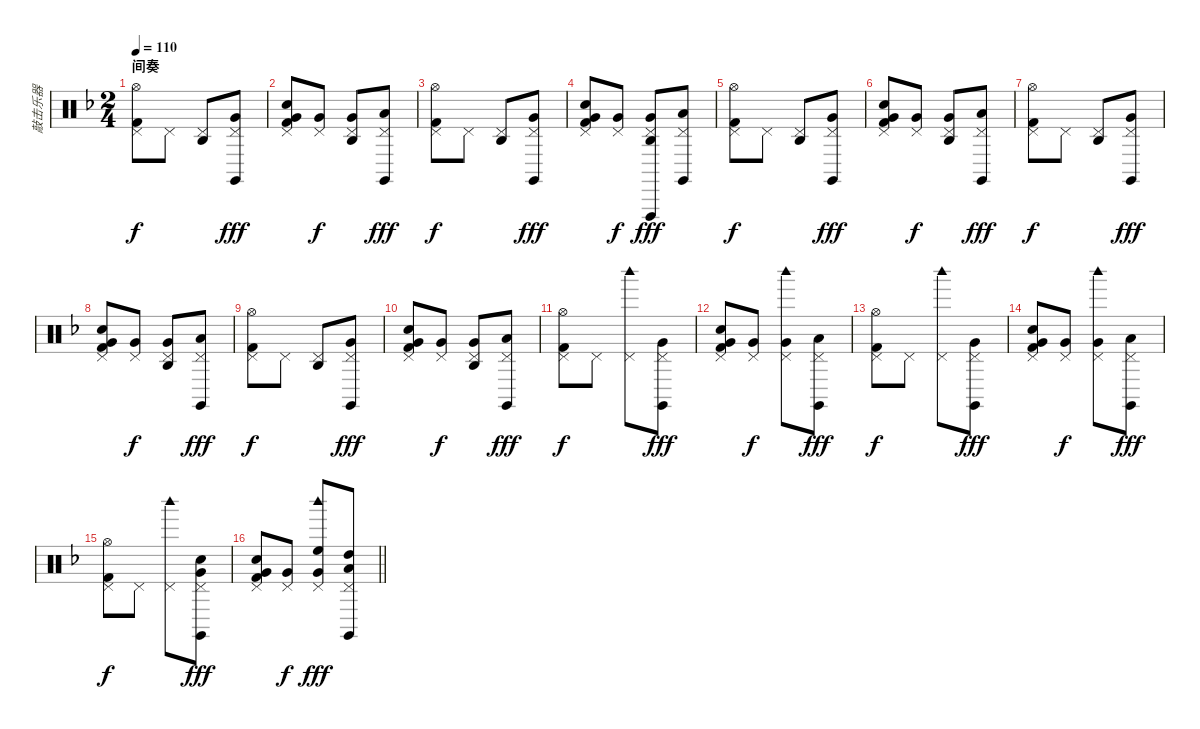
\track ("敲击乐器" "敲击乐器") {instrument percussion}
\staff {score}
\articulation defaults
\ts (2 4)
\section ("" "间奏")
\tempo 110
\clef neutral
\ks dminor
("Hi-Hat (open)" "Pedal Hi-Hat (hit)" "Kick (hit) 2").8{dy f} "Pedal Hi-Hat (hit)".8 ("Pedal Hi-Hat (hit)" "Agogo high (hit)").8 ("Pedal Hi-Hat (hit)" "Claves (hit)" "Very Low Tom (hit)").8{dy fff} |
("Pedal Hi-Hat (hit)" "Electric Snare (hit)" "Very Low Tom (hit)" "Kick (hit) 2").8 ("Pedal Hi-Hat (hit)" "Very Low Tom (hit)").8{dy f} ("Pedal Hi-Hat (hit)" "Agogo high (hit)" "Very Low Tom (hit)").8 ("Pedal Hi-Hat (hit)" "Claves (hit)" "Low Floor Tom (hit)").8{dy fff} |
("Hi-Hat (open)" "Pedal Hi-Hat (hit)" "Kick (hit) 2").8{dy f} "Pedal Hi-Hat (hit)".8 ("Pedal Hi-Hat (hit)" "Agogo high (hit)").8 ("Pedal Hi-Hat (hit)" "Claves (hit)" "Very Low Tom (hit)").8{dy fff} |
("Pedal Hi-Hat (hit)" "Electric Snare (hit)" "Very Low Tom (hit)" "Kick (hit) 2").8 ("Pedal Hi-Hat (hit)" "Very Low Tom (hit)").8{dy f} ("Pedal Hi-Hat (hit)" "Agogo high (hit)" "Vibraslap (hit)" "Very Low Tom (hit)").8{dy fff} ("Pedal Hi-Hat (hit)" "Claves (hit)" "Low Floor Tom (hit)").8 |
("Hi-Hat (open)" "Pedal Hi-Hat (hit)" "Kick (hit) 2").8{dy f} "Pedal Hi-Hat (hit)".8 ("Pedal Hi-Hat (hit)" "Agogo high (hit)").8 ("Pedal Hi-Hat (hit)" "Claves (hit)" "Very Low Tom (hit)").8{dy fff} |
("Pedal Hi-Hat (hit)" "Electric Snare (hit)" "Very Low Tom (hit)" "Kick (hit) 2").8 ("Pedal Hi-Hat (hit)" "Very Low Tom (hit)").8{dy f} ("Pedal Hi-Hat (hit)" "Agogo high (hit)" "Very Low Tom (hit)").8 ("Pedal Hi-Hat (hit)" "Claves (hit)" "Low Floor Tom (hit)").8{dy fff} |
("Hi-Hat (open)" "Pedal Hi-Hat (hit)" "Kick (hit) 2").8{dy f} "Pedal Hi-Hat (hit)".8 ("Pedal Hi-Hat (hit)" "Agogo high (hit)").8 ("Pedal Hi-Hat (hit)" "Claves (hit)" "Very Low Tom (hit)").8{dy fff} |
("Pedal Hi-Hat (hit)" "Electric Snare (hit)" "Very Low Tom (hit)" "Kick (hit) 2").8 ("Pedal Hi-Hat (hit)" "Very Low Tom (hit)").8{dy f} ("Pedal Hi-Hat (hit)" "Agogo high (hit)" "Very Low Tom (hit)").8 ("Pedal Hi-Hat (hit)" "Claves (hit)" "Low Floor Tom (hit)").8{dy fff} |
("Hi-Hat (open)" "Pedal Hi-Hat (hit)" "Kick (hit) 2").8{dy f} "Pedal Hi-Hat (hit)".8 ("Pedal Hi-Hat (hit)" "Agogo high (hit)").8 ("Pedal Hi-Hat (hit)" "Claves (hit)" "Very Low Tom (hit)").8{dy fff} |
("Pedal Hi-Hat (hit)" "Electric Snare (hit)" "Very Low Tom (hit)" "Kick (hit) 2").8 ("Pedal Hi-Hat (hit)" "Very Low Tom (hit)").8{dy f} ("Pedal Hi-Hat (hit)" "Agogo high (hit)" "Very Low Tom (hit)").8 ("Pedal Hi-Hat (hit)" "Claves (hit)" "Low Floor Tom (hit)").8{dy fff} |
("Hi-Hat (open)" "Pedal Hi-Hat (hit)" "Kick (hit) 2").8{dy f} "Pedal Hi-Hat (hit)".8 ("Pedal Hi-Hat (hit)" "Woodblock high (hit)").8 ("Pedal Hi-Hat (hit)" "Claves (hit)" "Very Low Tom (hit)").8{dy fff} |
("Pedal Hi-Hat (hit)" "Electric Snare (hit)" "Very Low Tom (hit)" "Kick (hit) 2").8 ("Pedal Hi-Hat (hit)" "Very Low Tom (hit)").8{dy f} ("Pedal Hi-Hat (hit)" "Woodblock high (hit)" "Very Low Tom (hit)").8 ("Pedal Hi-Hat (hit)" "Claves (hit)" "Low Floor Tom (hit)").8{dy fff} |
("Hi-Hat (open)" "Pedal Hi-Hat (hit)" "Kick (hit) 2").8{dy f} "Pedal Hi-Hat (hit)".8 ("Pedal Hi-Hat (hit)" "Woodblock high (hit)").8 ("Pedal Hi-Hat (hit)" "Claves (hit)" "Very Low Tom (hit)").8{dy fff} |
("Pedal Hi-Hat (hit)" "Electric Snare (hit)" "Very Low Tom (hit)" "Kick (hit) 2").8 ("Pedal Hi-Hat (hit)" "Very Low Tom (hit)").8{dy f} ("Pedal Hi-Hat (hit)" "Woodblock high (hit)" "Very Low Tom (hit)").8 ("Pedal Hi-Hat (hit)" "Claves (hit)" "Low Floor Tom (hit)").8{dy fff} |
("Hi-Hat (open)" "Pedal Hi-Hat (hit)" "Kick (hit) 2").8{dy f} "Pedal Hi-Hat (hit)".8 ("Pedal Hi-Hat (hit)" "Woodblock high (hit)").8 ("Pedal Hi-Hat (hit)" "Claves (hit)" "Electric Snare (hit)" "Very Low Tom (hit)").8{dy fff} |
\barLineRight lightlight
("Pedal Hi-Hat (hit)" "Electric Snare (hit)" "Very Low Tom (hit)" "Kick (hit) 2").8 ("Pedal Hi-Hat (hit)" "Very Low Tom (hit)").8{dy f} ("Pedal Hi-Hat (hit)" "Woodblock high (hit)" "High Floor Tom (hit)" "Very Low Tom (hit)").8{dy fff} ("Pedal Hi-Hat (hit)" "Claves (hit)" "High Tom (hit)" "Low Floor Tom (hit)").8
